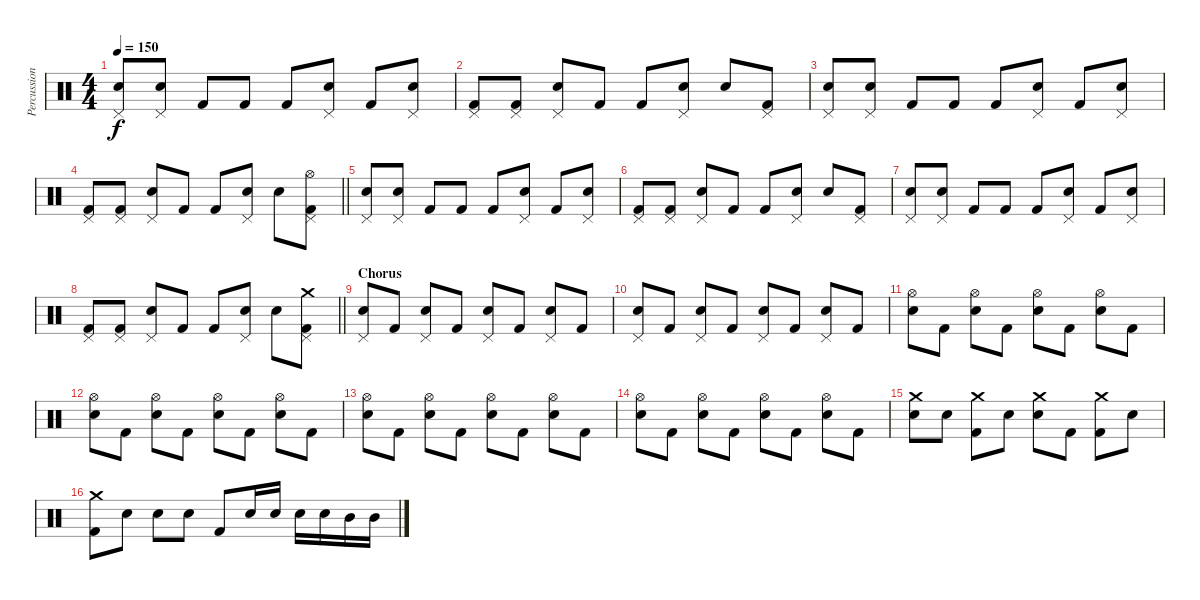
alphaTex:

\track ("Percussion" "Percussion") {instrument percussion}
\staff {score}
\articulation defaults
\ts (4 4)
\tempo 150
\clef neutral
\ks c
("Pedal Hi-Hat (hit)" "Electric Snare (hit)").8{dy f} ("Pedal Hi-Hat (hit)" "Electric Snare (hit)").8 "Kick (hit) 2".8 "Kick (hit) 2".8 "Kick (hit) 2".8 ("Pedal Hi-Hat (hit)" "Electric Snare (hit)").8 "Kick (hit) 2".8 ("Pedal Hi-Hat (hit)" "Electric Snare (hit)").8 |
("Pedal Hi-Hat (hit)" "Kick (hit) 2").8 ("Pedal Hi-Hat (hit)" "Kick (hit) 2").8 ("Pedal Hi-Hat (hit)" "Electric Snare (hit)").8 "Kick (hit) 2".8 "Kick (hit) 2".8 ("Pedal Hi-Hat (hit)" "Electric Snare (hit)").8 "Electric Snare (hit)".8 ("Pedal Hi-Hat (hit)" "Kick (hit) 2").8 |
("Pedal Hi-Hat (hit)" "Electric Snare (hit)").8 ("Pedal Hi-Hat (hit)" "Electric Snare (hit)").8 "Kick (hit) 2".8 "Kick (hit) 2".8 "Kick (hit) 2".8 ("Pedal Hi-Hat (hit)" "Electric Snare (hit)").8 "Kick (hit) 2".8 ("Pedal Hi-Hat (hit)" "Electric Snare (hit)").8 |
\barLineRight lightlight
("Pedal Hi-Hat (hit)" "Kick (hit) 2").8 ("Pedal Hi-Hat (hit)" "Kick (hit) 2").8 ("Pedal Hi-Hat (hit)" "Electric Snare (hit)").8 "Kick (hit) 2".8 "Kick (hit) 2".8 ("Pedal Hi-Hat (hit)" "Electric Snare (hit)").8 "Electric Snare (hit)".8 ("Hi-Hat (open)" "Pedal Hi-Hat (hit)" "Kick (hit) 2").8 |
("Pedal Hi-Hat (hit)" "Electric Snare (hit)").8 ("Pedal Hi-Hat (hit)" "Electric Snare (hit)").8 "Kick (hit) 2".8 "Kick (hit) 2".8 "Kick (hit) 2".8 ("Pedal Hi-Hat (hit)" "Electric Snare (hit)").8 "Kick (hit) 2".8 ("Pedal Hi-Hat (hit)" "Electric Snare (hit)").8 |
("Pedal Hi-Hat (hit)" "Kick (hit) 2").8 ("Pedal Hi-Hat (hit)" "Kick (hit) 2").8 ("Pedal Hi-Hat (hit)" "Electric Snare (hit)").8 "Kick (hit) 2".8 "Kick (hit) 2".8 ("Pedal Hi-Hat (hit)" "Electric Snare (hit)").8 "Electric Snare (hit)".8 ("Pedal Hi-Hat (hit)" "Kick (hit) 2").8 |
("Pedal Hi-Hat (hit)" "Electric Snare (hit)").8 ("Pedal Hi-Hat (hit)" "Electric Snare (hit)").8 "Kick (hit) 2".8 "Kick (hit) 2".8 "Kick (hit) 2".8 ("Pedal Hi-Hat (hit)" "Electric Snare (hit)").8 "Kick (hit) 2".8 ("Pedal Hi-Hat (hit)" "Electric Snare (hit)").8 |
\barLineRight lightlight
("Pedal Hi-Hat (hit)" "Kick (hit) 2").8 ("Pedal Hi-Hat (hit)" "Kick (hit) 2").8 ("Pedal Hi-Hat (hit)" "Electric Snare (hit)").8 "Kick (hit) 2".8 "Kick (hit) 2".8 ("Pedal Hi-Hat (hit)" "Electric Snare (hit)").8 "Electric Snare (hit)".8 ("Crash medium (hit)" "Pedal Hi-Hat (hit)" "Kick (hit) 2").8 |
\section ("" "Chorus")
("Pedal Hi-Hat (hit)" "Electric Snare (hit)").8 "Kick (hit) 2".8 ("Pedal Hi-Hat (hit)" "Electric Snare (hit)").8 "Kick (hit) 2".8 ("Pedal Hi-Hat (hit)" "Electric Snare (hit)").8 "Kick (hit) 2".8 ("Pedal Hi-Hat (hit)" "Electric Snare (hit)").8 "Kick (hit) 2".8 |
("Pedal Hi-Hat (hit)" "Electric Snare (hit)").8 "Kick (hit) 2".8 ("Pedal Hi-Hat (hit)" "Electric Snare (hit)").8 "Kick (hit) 2".8 ("Pedal Hi-Hat (hit)" "Electric Snare (hit)").8 "Kick (hit) 2".8 ("Pedal Hi-Hat (hit)" "Electric Snare (hit)").8 "Kick (hit) 2".8 |
("Hi-Hat (open)" "Electric Snare (hit)").8 "Kick (hit) 2".8 ("Hi-Hat (open)" "Electric Snare (hit)").8 "Kick (hit) 2".8 ("Hi-Hat (open)" "Electric Snare (hit)").8 "Kick (hit) 2".8 ("Hi-Hat (open)" "Electric Snare (hit)").8 "Kick (hit) 2".8 |
("Hi-Hat (open)" "Electric Snare (hit)").8 "Kick (hit) 2".8 ("Hi-Hat (open)" "Electric Snare (hit)").8 "Kick (hit) 2".8 ("Hi-Hat (open)" "Electric Snare (hit)").8 "Kick (hit) 2".8 ("Hi-Hat (open)" "Electric Snare (hit)").8 "Kick (hit) 2".8 |
("Hi-Hat (open)" "Electric Snare (hit)").8 "Kick (hit) 2".8 ("Hi-Hat (open)" "Electric Snare (hit)").8 "Kick (hit) 2".8 ("Hi-Hat (open)" "Electric Snare (hit)").8 "Kick (hit) 2".8 ("Hi-Hat (open)" "Electric Snare (hit)").8 "Kick (hit) 2".8 |
("Hi-Hat (open)" "Electric Snare (hit)").8 "Kick (hit) 2".8 ("Hi-Hat (open)" "Electric Snare (hit)").8 "Kick (hit) 2".8 ("Hi-Hat (open)" "Electric Snare (hit)").8 "Kick (hit) 2".8 ("Hi-Hat (open)" "Electric Snare (hit)").8 "Kick (hit) 2".8 |
("Crash medium (hit)" "Electric Snare (hit)").8 "Electric Snare (hit)".8 ("Crash medium (hit)" "Kick (hit) 2").8 "Electric Snare (hit)".8 ("Crash medium (hit)" "Electric Snare (hit)").8 "Kick (hit) 2".8 ("Crash medium (hit)" "Kick (hit) 2").8 "Electric Snare (hit)".8 |
("Crash medium (hit)" "Kick (hit) 2").8 "Electric Snare (hit)".8 "Electric Snare (hit)".8 "Electric Snare (hit)".8 "Kick (hit) 2".8 "Electric Snare (hit)".16 "Electric Snare (hit)".16 "Electric Snare (hit)".16 "Electric Snare (hit)".16 "Mid Tom (hit)".16 "Mid Tom (hit)".16
